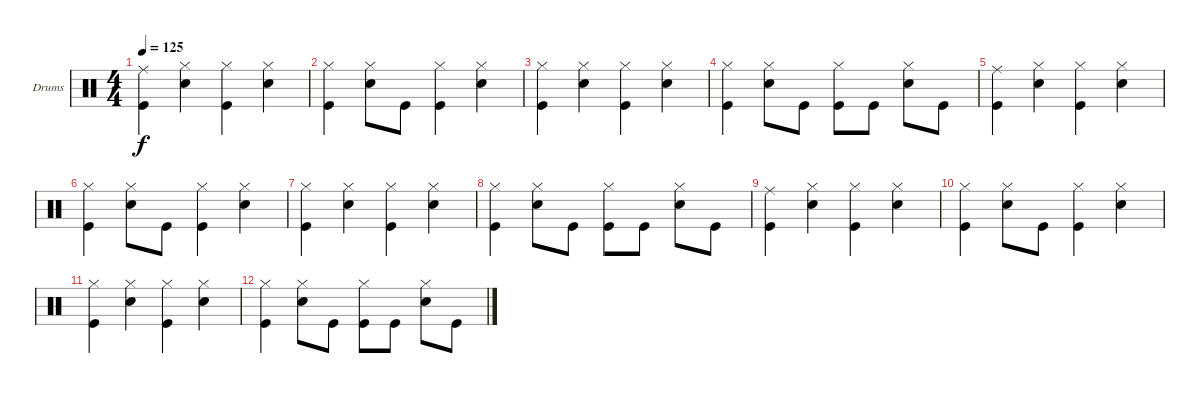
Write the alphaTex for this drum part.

\defaultSystemsLayout 4
\bracketExtendMode groupsimilarinstruments
\firstSystemTrackNameOrientation horizontal
\otherSystemsTrackNameOrientation horizontal
\track ("Drumkit" "Drums") {instrument percussion}
\staff {score}
\articulation defaults
\ts (4 4)
\tempo 125
\clef neutral
\scale
0.333333
\ks c
("Ride (middle)" "Kick (hit)").4{dy f} ("Snare (hit) 2" "Hi-Hat (closed)").4 ("Hi-Hat (closed)" "Kick (hit)").4 ("Hi-Hat (closed)" "Snare (hit) 2").4 |
\scale
0.333333 ("Hi-Hat (closed)" "Kick (hit)").4 ("Hi-Hat (closed)" "Snare (hit) 2").8 "Kick (hit)".8 ("Kick (hit)" "Hi-Hat (closed)").4 ("Hi-Hat (closed)" "Snare (hit) 2").4 |
\scale
0.333333 ("Hi-Hat (closed)" "Kick (hit)").4 ("Hi-Hat (closed)" "Snare (hit) 2").4 ("Hi-Hat (closed)" "Kick (hit)").4 ("Hi-Hat (closed)" "Snare (hit) 2").4 |
\scale
0.333333 ("Hi-Hat (closed)" "Kick (hit)").4 ("Snare (hit) 2" "Hi-Hat (closed)").8 "Kick (hit)".8 ("Kick (hit)" "Hi-Hat (closed)").8 "Kick (hit)".8 ("Snare (hit) 2" "Hi-Hat (closed)").8 "Kick (hit)".8 |
\scale
0.333333 ("Ride (middle)" "Kick (hit)").4 ("Snare (hit) 2" "Hi-Hat (closed)").4 ("Hi-Hat (closed)" "Kick (hit)").4 ("Hi-Hat (closed)" "Snare (hit) 2").4 |
\scale
0.333333 ("Hi-Hat (closed)" "Kick (hit)").4 ("Hi-Hat (closed)" "Snare (hit) 2").8 "Kick (hit)".8 ("Kick (hit)" "Hi-Hat (closed)").4 ("Hi-Hat (closed)" "Snare (hit) 2").4 |
\scale
0.333333 ("Hi-Hat (closed)" "Kick (hit)").4 ("Hi-Hat (closed)" "Snare (hit) 2").4 ("Hi-Hat (closed)" "Kick (hit)").4 ("Hi-Hat (closed)" "Snare (hit) 2").4 |
\scale
0.333333 ("Hi-Hat (closed)" "Kick (hit)").4 ("Snare (hit) 2" "Hi-Hat (closed)").8 "Kick (hit)".8 ("Kick (hit)" "Hi-Hat (closed)").8 "Kick (hit)".8 ("Snare (hit) 2" "Hi-Hat (closed)").8 "Kick (hit)".8 |
\scale
0.333333 ("Ride (middle)" "Kick (hit)").4 ("Snare (hit) 2" "Hi-Hat (closed)").4 ("Hi-Hat (closed)" "Kick (hit)").4 ("Hi-Hat (closed)" "Snare (hit) 2").4 |
\scale
0.333333 ("Hi-Hat (closed)" "Kick (hit)").4 ("Hi-Hat (closed)" "Snare (hit) 2").8 "Kick (hit)".8 ("Kick (hit)" "Hi-Hat (closed)").4 ("Hi-Hat (closed)" "Snare (hit) 2").4 |
\scale
0.333333 ("Hi-Hat (closed)" "Kick (hit)").4 ("Hi-Hat (closed)" "Snare (hit) 2").4 ("Hi-Hat (closed)" "Kick (hit)").4 ("Hi-Hat (closed)" "Snare (hit) 2").4 |
\scale
0.333333 ("Hi-Hat (closed)" "Kick (hit)").4 ("Snare (hit) 2" "Hi-Hat (closed)").8 "Kick (hit)".8 ("Kick (hit)" "Hi-Hat (closed)").8 "Kick (hit)".8 ("Snare (hit) 2" "Hi-Hat (closed)").8 "Kick (hit)".8 |
\scale
0.333333 |
\scale
0.333333 |
\scale
0.333333 |
\scale
0.333333
